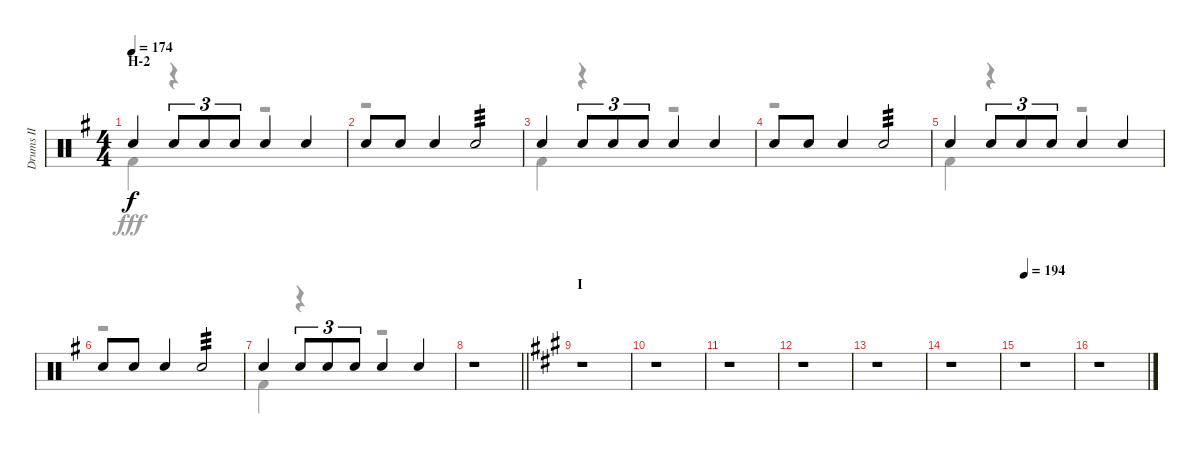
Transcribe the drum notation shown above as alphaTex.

\track ("Drums II" "Drums II") {instrument percussion}
\staff {score}
\articulation defaults
\voice
\ts (4 4)
\section ("" "H-2")
\tempo 174
\clef neutral
\ks g "Electric Snare (hit)".4{dy f} "Electric Snare (hit)".8{tu (3 2)} "Electric Snare (hit)".8{tu (3 2)} "Electric Snare (hit)".8{tu (3 2)} "Electric Snare (hit)".4 "Electric Snare (hit)".4
|
"Electric Snare (hit)".8 "Electric Snare (hit)".8 "Electric Snare (hit)".4 "Electric Snare (hit)".2{tp 3} |
"Electric Snare (hit)".4 "Electric Snare (hit)".8{tu (3 2)} "Electric Snare (hit)".8{tu (3 2)} "Electric Snare (hit)".8{tu (3 2)} "Electric Snare (hit)".4 "Electric Snare (hit)".4 |
"Electric Snare (hit)".8 "Electric Snare (hit)".8 "Electric Snare (hit)".4 "Electric Snare (hit)".2{tp 3} |
"Electric Snare (hit)".4 "Electric Snare (hit)".8{tu (3 2)} "Electric Snare (hit)".8{tu (3 2)} "Electric Snare (hit)".8{tu (3 2)} "Electric Snare (hit)".4 "Electric Snare (hit)".4 |
"Electric Snare (hit)".8 "Electric Snare (hit)".8 "Electric Snare (hit)".4 "Electric Snare (hit)".2{tp 3} |
"Electric Snare (hit)".4 "Electric Snare (hit)".8{tu (3 2)} "Electric Snare (hit)".8{tu (3 2)} "Electric Snare (hit)".8{tu (3 2)} "Electric Snare (hit)".4 "Electric Snare (hit)".4 |
\barLineRight lightlight
r.1 |
\section ("" "I")
\ks a
r.1 |
r.1 |
r.1 |
r.1 |
r.1 |
r.1 |
\tempo 194
r.1 |
r.1
\voice
\clef neutral
\ottava regular
\simile none
\ks g "Kick (hit) 2".4{dy fff}
r.4 r.2 |
r.1 |
"Kick (hit) 2".4 r.4 r.2 |
r.1 |
"Kick (hit) 2".4 r.4 r.2 |
r.1 |
"Kick (hit) 2".4 r.4 r.2 |
\barLineRight lightlight
r.1 |
\ks a
r.1 |
r.1 |
r.1 |
r.1 |
r.1 |
r.1 |
r.1 |
r.1
